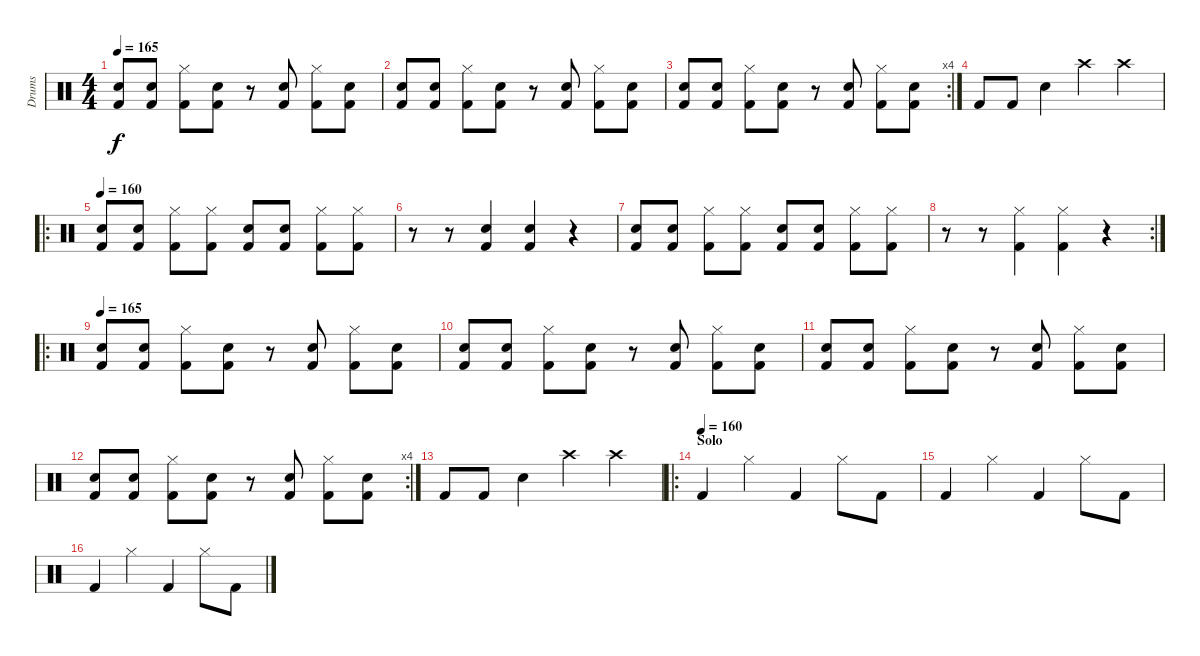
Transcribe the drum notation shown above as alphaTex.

\track ("Drums" "Drums") {instrument percussion}
\staff {score}
\articulation defaults
\ts (4 4)
\tempo 165
\clef neutral
\ks c
("Kick (hit) 2" "Snare (hit) 2").8{dy f} ("Kick (hit) 2" "Snare (hit) 2").8 ("Kick (hit) 2" "Hi-Hat (closed)").8 ("Kick (hit) 2" "Snare (hit) 2").8 r.8 ("Kick (hit) 2" "Snare (hit) 2").8 ("Kick (hit) 2" "Hi-Hat (closed)").8 ("Kick (hit) 2" "Snare (hit) 2").8 |
("Kick (hit) 2" "Snare (hit) 2").8 ("Kick (hit) 2" "Snare (hit) 2").8 ("Kick (hit) 2" "Hi-Hat (closed)").8 ("Kick (hit) 2" "Snare (hit) 2").8 r.8 ("Kick (hit) 2" "Snare (hit) 2").8 ("Kick (hit) 2" "Hi-Hat (closed)").8 ("Kick (hit) 2" "Snare (hit) 2").8 |
\rc 4
("Kick (hit) 2" "Snare (hit) 2").8 ("Kick (hit) 2" "Snare (hit) 2").8 ("Kick (hit) 2" "Hi-Hat (closed)").8 ("Kick (hit) 2" "Snare (hit) 2").8 r.8 ("Kick (hit) 2" "Snare (hit) 2").8 ("Kick (hit) 2" "Hi-Hat (closed)").8 ("Kick (hit) 2" "Snare (hit) 2").8 |
"Kick (hit) 2".8 "Kick (hit) 2".8 "Snare (hit) 2".4 "Crash high (hit)".4 "Crash high (hit)".4 |
\ro
\tempo 160
("Kick (hit) 2" "Snare (hit) 2").8 ("Kick (hit) 2" "Snare (hit) 2").8 ("Kick (hit) 2" "Hi-Hat (closed)").8 ("Kick (hit) 2" "Hi-Hat (closed)").8 ("Kick (hit) 2" "Snare (hit) 2").8 ("Kick (hit) 2" "Snare (hit) 2").8 ("Kick (hit) 2" "Hi-Hat (closed)").8 ("Kick (hit) 2" "Hi-Hat (closed)").8 |
r.8 r.8 ("Kick (hit) 2" "Snare (hit) 2").4 ("Kick (hit) 2" "Snare (hit) 2").4 r.4 |
("Kick (hit) 2" "Snare (hit) 2").8 ("Kick (hit) 2" "Snare (hit) 2").8 ("Kick (hit) 2" "Hi-Hat (closed)").8 ("Kick (hit) 2" "Hi-Hat (closed)").8 ("Kick (hit) 2" "Snare (hit) 2").8 ("Kick (hit) 2" "Snare (hit) 2").8 ("Kick (hit) 2" "Hi-Hat (closed)").8 ("Kick (hit) 2" "Hi-Hat (closed)").8 |
\rc 2
r.8 r.8 ("Kick (hit) 2" "Hi-Hat (closed)").4 ("Kick (hit) 2" "Hi-Hat (closed)").4 r.4 |
\ro
\tempo 165
("Kick (hit) 2" "Snare (hit) 2").8 ("Kick (hit) 2" "Snare (hit) 2").8 ("Kick (hit) 2" "Hi-Hat (closed)").8 ("Kick (hit) 2" "Snare (hit) 2").8 r.8 ("Kick (hit) 2" "Snare (hit) 2").8 ("Kick (hit) 2" "Hi-Hat (closed)").8 ("Kick (hit) 2" "Snare (hit) 2").8 |
("Kick (hit) 2" "Snare (hit) 2").8 ("Kick (hit) 2" "Snare (hit) 2").8 ("Kick (hit) 2" "Hi-Hat (closed)").8 ("Kick (hit) 2" "Snare (hit) 2").8 r.8 ("Kick (hit) 2" "Snare (hit) 2").8 ("Kick (hit) 2" "Hi-Hat (closed)").8 ("Kick (hit) 2" "Snare (hit) 2").8 |
("Kick (hit) 2" "Snare (hit) 2").8 ("Kick (hit) 2" "Snare (hit) 2").8 ("Kick (hit) 2" "Hi-Hat (closed)").8 ("Kick (hit) 2" "Snare (hit) 2").8 r.8 ("Kick (hit) 2" "Snare (hit) 2").8 ("Kick (hit) 2" "Hi-Hat (closed)").8 ("Kick (hit) 2" "Snare (hit) 2").8 |
\rc 4
("Kick (hit) 2" "Snare (hit) 2").8 ("Kick (hit) 2" "Snare (hit) 2").8 ("Kick (hit) 2" "Hi-Hat (closed)").8 ("Kick (hit) 2" "Snare (hit) 2").8 r.8 ("Kick (hit) 2" "Snare (hit) 2").8 ("Kick (hit) 2" "Hi-Hat (closed)").8 ("Kick (hit) 2" "Snare (hit) 2").8 |
"Kick (hit) 2".8 "Kick (hit) 2".8 "Snare (hit) 2".4 "Crash high (hit)".4 "Crash high (hit)".4 |
\ro
\section ("" "Solo")
\tempo (160)
"Kick (hit) 2".4 "Hi-Hat (closed)".4 "Kick (hit) 2".4 "Hi-Hat (closed)".8 "Kick (hit) 2".8 |
"Kick (hit) 2".4 "Hi-Hat (closed)".4 "Kick (hit) 2".4 "Hi-Hat (closed)".8 "Kick (hit) 2".8 |
"Kick (hit) 2".4 "Hi-Hat (closed)".4 "Kick (hit) 2".4 "Hi-Hat (closed)".8 "Kick (hit) 2".8
